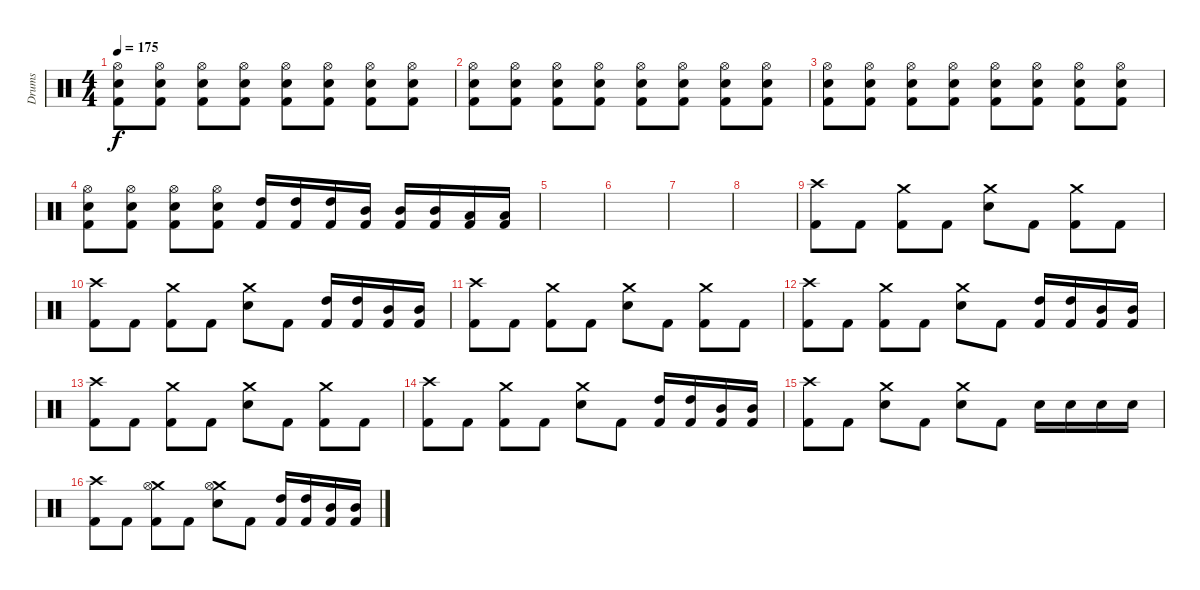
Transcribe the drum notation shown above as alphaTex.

\track ("Drums" "Drums") {instrument percussion}
\staff {score}
\articulation defaults
\ts (4 4)
\tempo 175
\clef neutral
\ks c
("Hi-Hat (open)" "Snare (hit) 2" "Kick (hit) 2").8{dy f} ("Hi-Hat (open)" "Snare (hit) 2" "Kick (hit) 2").8 ("Hi-Hat (open)" "Snare (hit) 2" "Kick (hit) 2").8 ("Hi-Hat (open)" "Snare (hit) 2" "Kick (hit) 2").8 ("Hi-Hat (open)" "Snare (hit) 2" "Kick (hit) 2").8 ("Hi-Hat (open)" "Snare (hit) 2" "Kick (hit) 2").8 ("Hi-Hat (open)" "Snare (hit) 2" "Kick (hit) 2").8 ("Hi-Hat (open)" "Snare (hit) 2" "Kick (hit) 2").8 |
("Hi-Hat (open)" "Snare (hit) 2" "Kick (hit) 2").8 ("Hi-Hat (open)" "Snare (hit) 2" "Kick (hit) 2").8 ("Hi-Hat (open)" "Snare (hit) 2" "Kick (hit) 2").8 ("Hi-Hat (open)" "Snare (hit) 2" "Kick (hit) 2").8 ("Hi-Hat (open)" "Snare (hit) 2" "Kick (hit) 2").8 ("Hi-Hat (open)" "Snare (hit) 2" "Kick (hit) 2").8 ("Hi-Hat (open)" "Snare (hit) 2" "Kick (hit) 2").8 ("Hi-Hat (open)" "Snare (hit) 2" "Kick (hit) 2").8 |
("Hi-Hat (open)" "Snare (hit) 2" "Kick (hit) 2").8 ("Hi-Hat (open)" "Snare (hit) 2" "Kick (hit) 2").8 ("Hi-Hat (open)" "Snare (hit) 2" "Kick (hit) 2").8 ("Hi-Hat (open)" "Snare (hit) 2" "Kick (hit) 2").8 ("Hi-Hat (open)" "Snare (hit) 2" "Kick (hit) 2").8 ("Hi-Hat (open)" "Snare (hit) 2" "Kick (hit) 2").8 ("Hi-Hat (open)" "Snare (hit) 2" "Kick (hit) 2").8 ("Hi-Hat (open)" "Snare (hit) 2" "Kick (hit) 2").8 |
("Hi-Hat (open)" "Snare (hit) 2" "Kick (hit) 2").8 ("Hi-Hat (open)" "Snare (hit) 2" "Kick (hit) 2").8 ("Hi-Hat (open)" "Snare (hit) 2" "Kick (hit) 2").8 ("Hi-Hat (open)" "Snare (hit) 2" "Kick (hit) 2").8 ("High Tom (hit)" "Kick (hit) 2").16 ("High Tom (hit)" "Kick (hit) 2").16 ("High Tom (hit)" "Kick (hit) 2").16 ("Mid Tom (hit)" "Kick (hit) 2").16 ("Mid Tom (hit)" "Kick (hit) 2").16 ("Mid Tom (hit)" "Kick (hit) 2").16 ("Low Tom (hit)" "Kick (hit) 2").16 ("Low Tom (hit)" "Kick (hit) 2").16 |
|
|
|
|
("Crash high (hit)" "Kick (hit) 2").8 "Kick (hit) 2".8 ("Crash medium (hit)" "Kick (hit) 2").8 "Kick (hit) 2".8 ("Crash medium (hit)" "Snare (hit) 2").8 "Kick (hit) 2".8 ("Crash medium (hit)" "Kick (hit) 2").8 "Kick (hit) 2".8 |
("Crash high (hit)" "Kick (hit) 2").8 "Kick (hit) 2".8 ("Crash medium (hit)" "Kick (hit) 2").8 "Kick (hit) 2".8 ("Crash medium (hit)" "Snare (hit) 2").8 "Kick (hit) 2".8 ("High Tom (hit)" "Kick (hit) 2").16 ("High Tom (hit)" "Kick (hit) 2").16 ("Mid Tom (hit)" "Kick (hit) 2").16 ("Mid Tom (hit)" "Kick (hit) 2").16 |
("Crash high (hit)" "Kick (hit) 2").8 "Kick (hit) 2".8 ("Crash medium (hit)" "Kick (hit) 2").8 "Kick (hit) 2".8 ("Crash medium (hit)" "Snare (hit) 2").8 "Kick (hit) 2".8 ("Crash medium (hit)" "Kick (hit) 2").8 "Kick (hit) 2".8 |
("Crash high (hit)" "Kick (hit) 2").8 "Kick (hit) 2".8 ("Crash medium (hit)" "Kick (hit) 2").8 "Kick (hit) 2".8 ("Crash medium (hit)" "Snare (hit) 2").8 "Kick (hit) 2".8 ("High Tom (hit)" "Kick (hit) 2").16 ("High Tom (hit)" "Kick (hit) 2").16 ("Mid Tom (hit)" "Kick (hit) 2").16 ("Mid Tom (hit)" "Kick (hit) 2").16 |
("Crash high (hit)" "Kick (hit) 2").8 "Kick (hit) 2".8 ("Crash medium (hit)" "Kick (hit) 2").8 "Kick (hit) 2".8 ("Crash medium (hit)" "Snare (hit) 2").8 "Kick (hit) 2".8 ("Crash medium (hit)" "Kick (hit) 2").8 "Kick (hit) 2".8 |
("Crash high (hit)" "Kick (hit) 2").8 "Kick (hit) 2".8 ("Crash medium (hit)" "Kick (hit) 2").8 "Kick (hit) 2".8 ("Crash medium (hit)" "Snare (hit) 2").8 "Kick (hit) 2".8 ("High Tom (hit)" "Kick (hit) 2").16 ("High Tom (hit)" "Kick (hit) 2").16 ("Mid Tom (hit)" "Kick (hit) 2").16 ("Mid Tom (hit)" "Kick (hit) 2").16 |
("Crash high (hit)" "Kick (hit) 2").8 "Kick (hit) 2".8 ("Crash medium (hit)" "Snare (hit) 2").8 "Kick (hit) 2".8 ("Crash medium (hit)" "Snare (hit) 2").8 "Kick (hit) 2".8 "Snare (hit) 2".16 "Snare (hit) 2".16 "Snare (hit) 2".16 "Snare (hit) 2".16 |
("Crash high (hit)" "Kick (hit) 2").8 "Kick (hit) 2".8 ("Crash medium (hit)" "Hi-Hat (open)" "Kick (hit) 2").8 "Kick (hit) 2".8 ("Crash medium (hit)" "Hi-Hat (open)" "Snare (hit) 2").8 "Kick (hit) 2".8 ("High Tom (hit)" "Kick (hit) 2").16 ("High Tom (hit)" "Kick (hit) 2").16 ("Mid Tom (hit)" "Kick (hit) 2").16 ("Mid Tom (hit)" "Kick (hit) 2").16
